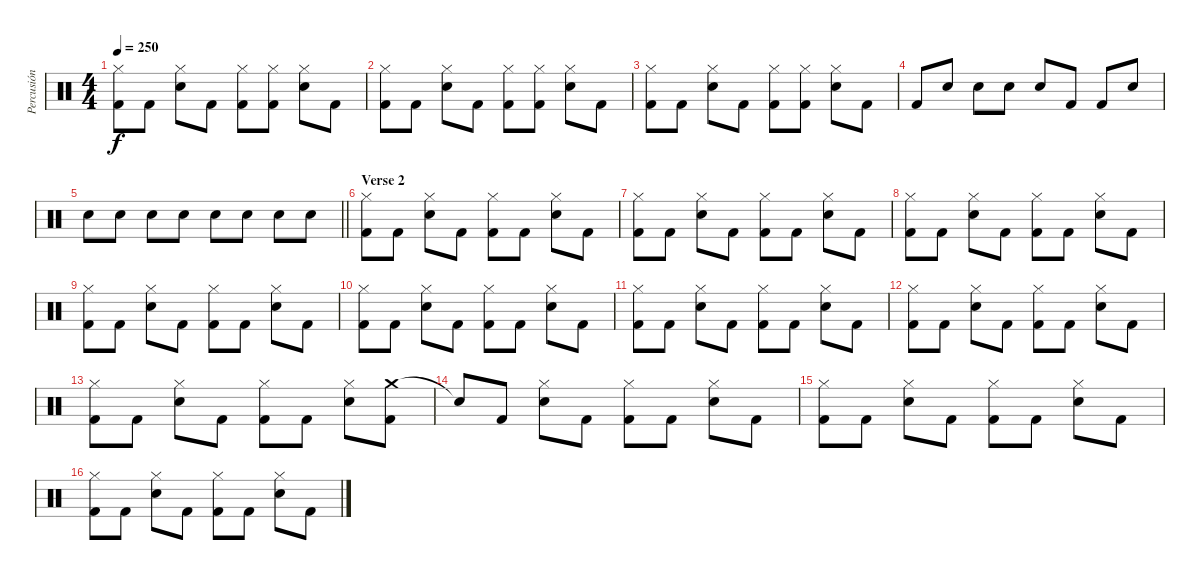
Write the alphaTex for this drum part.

\track ("Percusión" "Percusión") {instrument percussion}
\staff {score}
\articulation defaults
\ts (4 4)
\tempo 250
\clef neutral
\ks c
("Hi-Hat (closed)" "Kick (hit) 2").8{dy f} "Kick (hit) 2".8 ("Electric Snare (hit)" "Hi-Hat (closed)").8 "Kick (hit) 2".8 ("Hi-Hat (closed)" "Kick (hit) 2").8 ("Hi-Hat (closed)" "Kick (hit) 2").8 ("Electric Snare (hit)" "Hi-Hat (closed)").8 "Kick (hit) 2".8 |
("Hi-Hat (closed)" "Kick (hit) 2").8 "Kick (hit) 2".8 ("Electric Snare (hit)" "Hi-Hat (closed)").8 "Kick (hit) 2".8 ("Hi-Hat (closed)" "Kick (hit) 2").8 ("Hi-Hat (closed)" "Kick (hit) 2").8 ("Electric Snare (hit)" "Hi-Hat (closed)").8 "Kick (hit) 2".8 |
("Hi-Hat (closed)" "Kick (hit) 2").8 "Kick (hit) 2".8 ("Electric Snare (hit)" "Hi-Hat (closed)").8 "Kick (hit) 2".8 ("Hi-Hat (closed)" "Kick (hit) 2").8 ("Hi-Hat (closed)" "Kick (hit) 2").8 ("Electric Snare (hit)" "Hi-Hat (closed)").8 "Kick (hit) 2".8 |
"Kick (hit) 2".8 "Electric Snare (hit)".8 "Electric Snare (hit)".8 "Electric Snare (hit)".8 "Electric Snare (hit)".8 "Kick (hit) 2".8 "Kick (hit) 2".8 "Electric Snare (hit)".8 |
\barLineRight lightlight "Electric Snare (hit)".8 "Electric Snare (hit)".8 "Electric Snare (hit)".8 "Electric Snare (hit)".8 "Electric Snare (hit)".8 "Electric Snare (hit)".8 "Electric Snare (hit)".8 "Electric Snare (hit)".8
|
\section ("" "Verse 2")
("Hi-Hat (closed)" "Kick (hit) 2").8 "Kick (hit) 2".8 ("Electric Snare (hit)" "Hi-Hat (closed)").8 "Kick (hit) 2".8 ("Hi-Hat (closed)" "Kick (hit) 2").8 "Kick (hit) 2".8 ("Electric Snare (hit)" "Hi-Hat (closed)").8 "Kick (hit) 2".8 |
("Hi-Hat (closed)" "Kick (hit) 2").8 "Kick (hit) 2".8 ("Electric Snare (hit)" "Hi-Hat (closed)").8 "Kick (hit) 2".8 ("Hi-Hat (closed)" "Kick (hit) 2").8 "Kick (hit) 2".8 ("Electric Snare (hit)" "Hi-Hat (closed)").8 "Kick (hit) 2".8 |
("Hi-Hat (closed)" "Kick (hit) 2").8 "Kick (hit) 2".8 ("Electric Snare (hit)" "Hi-Hat (closed)").8 "Kick (hit) 2".8 ("Hi-Hat (closed)" "Kick (hit) 2").8 "Kick (hit) 2".8 ("Electric Snare (hit)" "Hi-Hat (closed)").8 "Kick (hit) 2".8 |
("Hi-Hat (closed)" "Kick (hit) 2").8 "Kick (hit) 2".8 ("Electric Snare (hit)" "Hi-Hat (closed)").8 "Kick (hit) 2".8 ("Hi-Hat (closed)" "Kick (hit) 2").8 "Kick (hit) 2".8 ("Electric Snare (hit)" "Hi-Hat (closed)").8 "Kick (hit) 2".8 |
("Hi-Hat (closed)" "Kick (hit) 2").8 "Kick (hit) 2".8 ("Electric Snare (hit)" "Hi-Hat (closed)").8 "Kick (hit) 2".8 ("Hi-Hat (closed)" "Kick (hit) 2").8 "Kick (hit) 2".8 ("Electric Snare (hit)" "Hi-Hat (closed)").8 "Kick (hit) 2".8 |
("Hi-Hat (closed)" "Kick (hit) 2").8 "Kick (hit) 2".8 ("Electric Snare (hit)" "Hi-Hat (closed)").8 "Kick (hit) 2".8 ("Hi-Hat (closed)" "Kick (hit) 2").8 "Kick (hit) 2".8 ("Electric Snare (hit)" "Hi-Hat (closed)").8 "Kick (hit) 2".8 |
("Hi-Hat (closed)" "Kick (hit) 2").8 "Kick (hit) 2".8 ("Electric Snare (hit)" "Hi-Hat (closed)").8 "Kick (hit) 2".8 ("Hi-Hat (closed)" "Kick (hit) 2").8 "Kick (hit) 2".8 ("Electric Snare (hit)" "Hi-Hat (closed)").8 "Kick (hit) 2".8 |
("Hi-Hat (closed)" "Kick (hit) 2").8 "Kick (hit) 2".8 ("Electric Snare (hit)" "Hi-Hat (closed)").8 "Kick (hit) 2".8 ("Hi-Hat (closed)" "Kick (hit) 2").8 "Kick (hit) 2".8 ("Electric Snare (hit)" "Hi-Hat (closed)").8 ("Crash medium (hit)" "Kick (hit) 2").8 |
"Snare (hit)"{t}.8 "Kick (hit) 2".8 ("Electric Snare (hit)" "Hi-Hat (closed)").8 "Kick (hit) 2".8 ("Hi-Hat (closed)" "Kick (hit) 2").8 "Kick (hit) 2".8 ("Electric Snare (hit)" "Hi-Hat (closed)").8 "Kick (hit) 2".8 |
("Hi-Hat (closed)" "Kick (hit) 2").8 "Kick (hit) 2".8 ("Electric Snare (hit)" "Hi-Hat (closed)").8 "Kick (hit) 2".8 ("Hi-Hat (closed)" "Kick (hit) 2").8 "Kick (hit) 2".8 ("Electric Snare (hit)" "Hi-Hat (closed)").8 "Kick (hit) 2".8 |
("Hi-Hat (closed)" "Kick (hit) 2").8 "Kick (hit) 2".8 ("Electric Snare (hit)" "Hi-Hat (closed)").8 "Kick (hit) 2".8 ("Hi-Hat (closed)" "Kick (hit) 2").8 "Kick (hit) 2".8 ("Electric Snare (hit)" "Hi-Hat (closed)").8 "Kick (hit) 2".8
